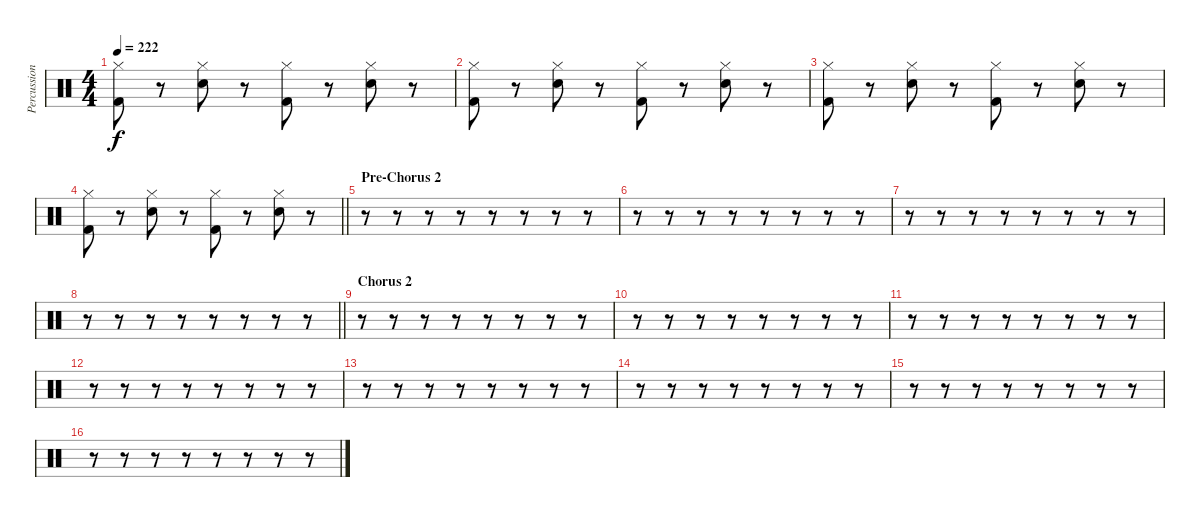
\track ("Percussion" "Percussion") {instrument percussion}
\staff {score}
\articulation defaults
\ts (4 4)
\tempo 222
\clef neutral
\ks c
("Kick (hit) 2" "Hi-Hat (closed)").8{dy f} r.8 ("Snare (hit) 2" "Hi-Hat (closed)").8 r.8 ("Kick (hit) 2" "Hi-Hat (closed)").8 r.8 ("Snare (hit) 2" "Hi-Hat (closed)").8 r.8 |
("Kick (hit) 2" "Hi-Hat (closed)").8 r.8 ("Snare (hit) 2" "Hi-Hat (closed)").8 r.8 ("Kick (hit) 2" "Hi-Hat (closed)").8 r.8 ("Snare (hit) 2" "Hi-Hat (closed)").8 r.8 |
("Kick (hit) 2" "Hi-Hat (closed)").8 r.8 ("Snare (hit) 2" "Hi-Hat (closed)").8 r.8 ("Kick (hit) 2" "Hi-Hat (closed)").8 r.8 ("Snare (hit) 2" "Hi-Hat (closed)").8 r.8 |
\barLineRight lightlight
("Kick (hit) 2" "Hi-Hat (closed)").8 r.8 ("Snare (hit) 2" "Hi-Hat (closed)").8 r.8 ("Kick (hit) 2" "Hi-Hat (closed)").8 r.8 ("Snare (hit) 2" "Hi-Hat (closed)").8 r.8 |
\section ("" "Pre-Chorus 2")
r.8 r.8 r.8 r.8 r.8 r.8 r.8 r.8 |
r.8 r.8 r.8 r.8 r.8 r.8 r.8 r.8 |
r.8 r.8 r.8 r.8 r.8 r.8 r.8 r.8 |
\barLineRight lightlight
r.8 r.8 r.8 r.8 r.8 r.8 r.8 r.8 |
\section ("" "Chorus 2")
r.8 r.8 r.8 r.8 r.8 r.8 r.8 r.8 |
r.8 r.8 r.8 r.8 r.8 r.8 r.8 r.8 |
r.8 r.8 r.8 r.8 r.8 r.8 r.8 r.8 |
r.8 r.8 r.8 r.8 r.8 r.8 r.8 r.8 |
r.8 r.8 r.8 r.8 r.8 r.8 r.8 r.8 |
r.8 r.8 r.8 r.8 r.8 r.8 r.8 r.8 |
r.8 r.8 r.8 r.8 r.8 r.8 r.8 r.8 |
r.8 r.8 r.8 r.8 r.8 r.8 r.8 r.8
